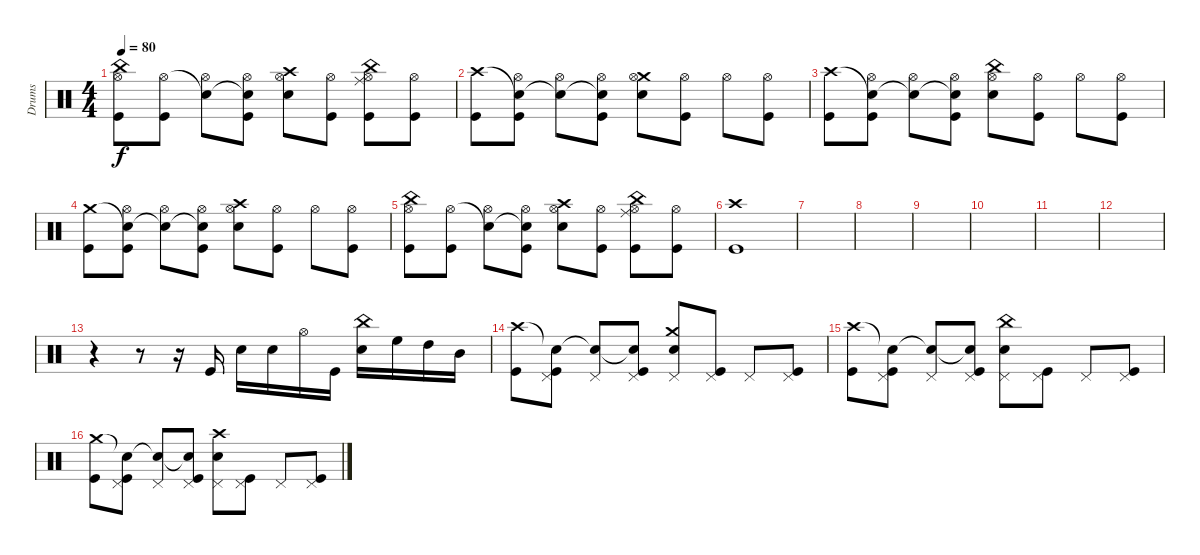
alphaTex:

\track ("Drums" "Drums") {instrument percussion}
\staff {score}
\articulation defaults
\ts (4 4)
\tempo 80
\clef neutral
\ks c
("China (hit)" "Hi-Hat (open)" "Kick (hit)").8{dy f} ("Hi-Hat (open)" "Kick (hit)").8 ("Snare (hit)"{t} "Hi-Hat (open)").8 ("Snare (hit)"{t} "Hi-Hat (open)" "Kick (hit)").8 ("Crash high (hit)" "Hi-Hat (open)" "Electric Snare (hit)").8 ("Hi-Hat (open)" "Kick (hit)").8 ("China (hit)" "Hi-Hat (open)" "Ride (middle)" "Kick (hit)").8 ("Hi-Hat (open)" "Kick (hit)").8 |
("Crash high (hit)" "Kick (hit)").8 ("Snare (hit)"{t} "Hi-Hat (open)" "Kick (hit)").8 ("Snare (hit)"{t} "Hi-Hat (open)").8 ("Snare (hit)"{t} "Hi-Hat (open)" "Kick (hit)").8 ("Crash medium (hit)" "Hi-Hat (open)" "Electric Snare (hit)").8 ("Hi-Hat (open)" "Kick (hit)").8 "Hi-Hat (open)".8 ("Hi-Hat (open)" "Kick (hit)").8 |
("Crash high (hit)" "Kick (hit)").8 ("Snare (hit)"{t} "Hi-Hat (open)" "Kick (hit)").8 ("Snare (hit)"{t} "Hi-Hat (open)").8 ("Snare (hit)"{t} "Hi-Hat (open)" "Kick (hit)").8 ("China (hit)" "Hi-Hat (open)" "Electric Snare (hit)").8 ("Hi-Hat (open)" "Kick (hit)").8 "Hi-Hat (open)".8 ("Hi-Hat (open)" "Kick (hit)").8 |
("Crash medium (hit)" "Kick (hit)").8 ("Snare (hit)"{t} "Hi-Hat (open)" "Kick (hit)").8 ("Snare (hit)"{t} "Hi-Hat (open)").8 ("Snare (hit)"{t} "Hi-Hat (open)" "Kick (hit)").8 ("Crash high (hit)" "Hi-Hat (open)" "Electric Snare (hit)").8 ("Hi-Hat (open)" "Kick (hit)").8 "Hi-Hat (open)".8 ("Hi-Hat (open)" "Kick (hit)").8 |
("China (hit)" "Hi-Hat (open)" "Kick (hit)").8 ("Hi-Hat (open)" "Kick (hit)").8 ("Snare (hit)"{t} "Hi-Hat (open)").8 ("Snare (hit)"{t} "Hi-Hat (open)" "Kick (hit)").8 ("Crash high (hit)" "Hi-Hat (open)" "Electric Snare (hit)").8 ("Hi-Hat (open)" "Kick (hit)").8 ("China (hit)" "Hi-Hat (open)" "Ride (middle)" "Kick (hit)").8 ("Hi-Hat (open)" "Kick (hit)").8 |
("Crash high (hit)" "Kick (hit)").1 |
|
|
|
|
|
|
r.4 r.8 r.16 "Kick (hit)".16 "Electric Snare (hit)".16 "Electric Snare (hit)".16 "Hi-Hat (open)".16 "Kick (hit)".16 ("China (hit)" "Electric Snare (hit)").16 "High Floor Tom (hit)".16 "High Tom (hit)".16 "Mid Tom (hit)".16 |
("Crash high (hit)" "Kick (hit)").8 ("Snare (hit)"{t} "Pedal Hi-Hat (hit)" "Kick (hit)").8 ("Snare (hit)"{t} "Pedal Hi-Hat (hit)").8 ("Snare (hit)"{t} "Pedal Hi-Hat (hit)" "Kick (hit)").8 ("Crash medium (hit)" "Pedal Hi-Hat (hit)" "Electric Snare (hit)").8 ("Pedal Hi-Hat (hit)" "Kick (hit)").8 "Pedal Hi-Hat (hit)".8 ("Pedal Hi-Hat (hit)" "Kick (hit)").8 |
("Crash high (hit)" "Kick (hit)").8 ("Snare (hit)"{t} "Pedal Hi-Hat (hit)" "Kick (hit)").8 ("Snare (hit)"{t} "Pedal Hi-Hat (hit)").8 ("Snare (hit)"{t} "Pedal Hi-Hat (hit)" "Kick (hit)").8 ("China (hit)" "Pedal Hi-Hat (hit)" "Electric Snare (hit)").8 ("Pedal Hi-Hat (hit)" "Kick (hit)").8 "Pedal Hi-Hat (hit)".8 ("Pedal Hi-Hat (hit)" "Kick (hit)").8 |
("Crash medium (hit)" "Kick (hit)").8 ("Snare (hit)"{t} "Pedal Hi-Hat (hit)" "Kick (hit)").8 ("Snare (hit)"{t} "Pedal Hi-Hat (hit)").8 ("Snare (hit)"{t} "Pedal Hi-Hat (hit)" "Kick (hit)").8 ("Crash high (hit)" "Pedal Hi-Hat (hit)" "Electric Snare (hit)").8 ("Pedal Hi-Hat (hit)" "Kick (hit)").8 "Pedal Hi-Hat (hit)".8 ("Pedal Hi-Hat (hit)" "Kick (hit)").8
